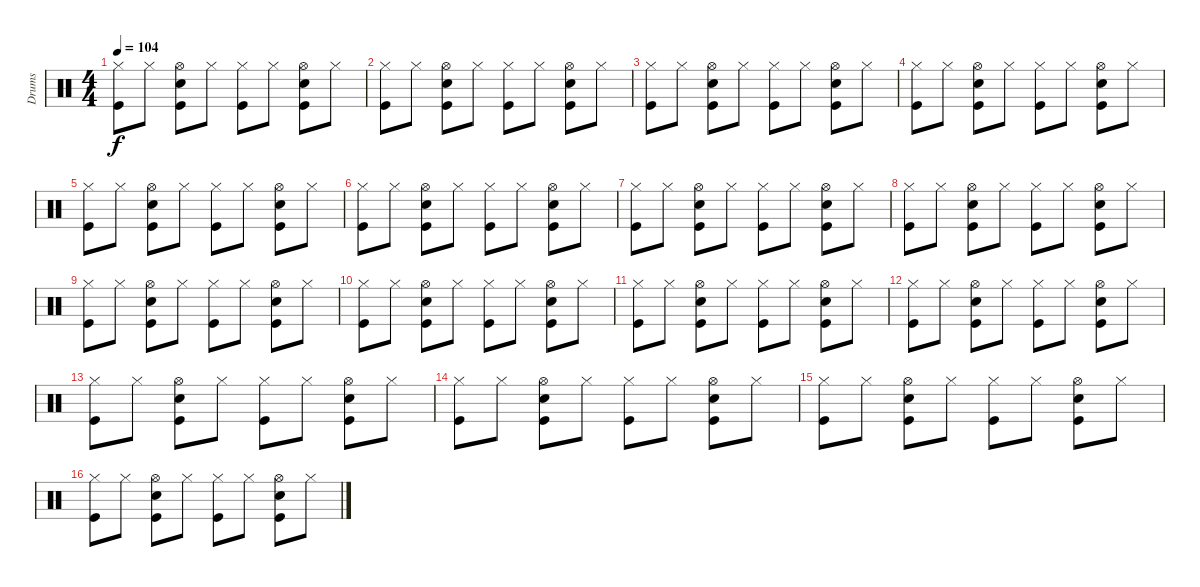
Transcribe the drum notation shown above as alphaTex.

\track ("Drums" "Drums") {instrument percussion}
\staff {score}
\articulation defaults
\ts (4 4)
\tempo 104
\clef neutral
\ks c
("Hi-Hat (closed)" "Kick (hit)").8{dy f} "Hi-Hat (closed)".8 ("Snare (hit) 2" "Hi-Hat (open)" "Kick (hit)").8 "Hi-Hat (closed)".8 ("Hi-Hat (closed)" "Kick (hit)").8 "Hi-Hat (closed)".8 ("Snare (hit) 2" "Hi-Hat (open)" "Kick (hit)").8 "Hi-Hat (closed)".8 |
("Hi-Hat (closed)" "Kick (hit)").8 "Hi-Hat (closed)".8 ("Snare (hit) 2" "Hi-Hat (open)" "Kick (hit)").8 "Hi-Hat (closed)".8 ("Hi-Hat (closed)" "Kick (hit)").8 "Hi-Hat (closed)".8 ("Snare (hit) 2" "Hi-Hat (open)" "Kick (hit)").8 "Hi-Hat (closed)".8 |
("Hi-Hat (closed)" "Kick (hit)").8 "Hi-Hat (closed)".8 ("Snare (hit) 2" "Hi-Hat (open)" "Kick (hit)").8 "Hi-Hat (closed)".8 ("Hi-Hat (closed)" "Kick (hit)").8 "Hi-Hat (closed)".8 ("Snare (hit) 2" "Hi-Hat (open)" "Kick (hit)").8 "Hi-Hat (closed)".8 |
("Hi-Hat (closed)" "Kick (hit)").8 "Hi-Hat (closed)".8 ("Snare (hit) 2" "Hi-Hat (open)" "Kick (hit)").8 "Hi-Hat (closed)".8 ("Hi-Hat (closed)" "Kick (hit)").8 "Hi-Hat (closed)".8 ("Snare (hit) 2" "Hi-Hat (open)" "Kick (hit)").8 "Hi-Hat (closed)".8 |
("Hi-Hat (closed)" "Kick (hit)").8 "Hi-Hat (closed)".8 ("Snare (hit) 2" "Hi-Hat (open)" "Kick (hit)").8 "Hi-Hat (closed)".8 ("Hi-Hat (closed)" "Kick (hit)").8 "Hi-Hat (closed)".8 ("Snare (hit) 2" "Hi-Hat (open)" "Kick (hit)").8 "Hi-Hat (closed)".8 |
("Hi-Hat (closed)" "Kick (hit)").8 "Hi-Hat (closed)".8 ("Snare (hit) 2" "Hi-Hat (open)" "Kick (hit)").8 "Hi-Hat (closed)".8 ("Hi-Hat (closed)" "Kick (hit)").8 "Hi-Hat (closed)".8 ("Snare (hit) 2" "Hi-Hat (open)" "Kick (hit)").8 "Hi-Hat (closed)".8 |
("Hi-Hat (closed)" "Kick (hit)").8 "Hi-Hat (closed)".8 ("Snare (hit) 2" "Hi-Hat (open)" "Kick (hit)").8 "Hi-Hat (closed)".8 ("Hi-Hat (closed)" "Kick (hit)").8 "Hi-Hat (closed)".8 ("Snare (hit) 2" "Hi-Hat (open)" "Kick (hit)").8 "Hi-Hat (closed)".8 |
("Hi-Hat (closed)" "Kick (hit)").8 "Hi-Hat (closed)".8 ("Snare (hit) 2" "Hi-Hat (open)" "Kick (hit)").8 "Hi-Hat (closed)".8 ("Hi-Hat (closed)" "Kick (hit)").8 "Hi-Hat (closed)".8 ("Snare (hit) 2" "Hi-Hat (open)" "Kick (hit)").8 "Hi-Hat (closed)".8 |
("Hi-Hat (closed)" "Kick (hit)").8 "Hi-Hat (closed)".8 ("Snare (hit) 2" "Hi-Hat (open)" "Kick (hit)").8 "Hi-Hat (closed)".8 ("Hi-Hat (closed)" "Kick (hit)").8 "Hi-Hat (closed)".8 ("Snare (hit) 2" "Hi-Hat (open)" "Kick (hit)").8 "Hi-Hat (closed)".8 |
("Hi-Hat (closed)" "Kick (hit)").8 "Hi-Hat (closed)".8 ("Snare (hit) 2" "Hi-Hat (open)" "Kick (hit)").8 "Hi-Hat (closed)".8 ("Hi-Hat (closed)" "Kick (hit)").8 "Hi-Hat (closed)".8 ("Snare (hit) 2" "Hi-Hat (open)" "Kick (hit)").8 "Hi-Hat (closed)".8 |
("Hi-Hat (closed)" "Kick (hit)").8 "Hi-Hat (closed)".8 ("Snare (hit) 2" "Hi-Hat (open)" "Kick (hit)").8 "Hi-Hat (closed)".8 ("Hi-Hat (closed)" "Kick (hit)").8 "Hi-Hat (closed)".8 ("Snare (hit) 2" "Hi-Hat (open)" "Kick (hit)").8 "Hi-Hat (closed)".8 |
("Hi-Hat (closed)" "Kick (hit)").8 "Hi-Hat (closed)".8 ("Snare (hit) 2" "Hi-Hat (open)" "Kick (hit)").8 "Hi-Hat (closed)".8 ("Hi-Hat (closed)" "Kick (hit)").8 "Hi-Hat (closed)".8 ("Snare (hit) 2" "Hi-Hat (open)" "Kick (hit)").8 "Hi-Hat (closed)".8 |
("Hi-Hat (closed)" "Kick (hit)").8 "Hi-Hat (closed)".8 ("Snare (hit) 2" "Hi-Hat (open)" "Kick (hit)").8 "Hi-Hat (closed)".8 ("Hi-Hat (closed)" "Kick (hit)").8 "Hi-Hat (closed)".8 ("Snare (hit) 2" "Hi-Hat (open)" "Kick (hit)").8 "Hi-Hat (closed)".8 |
("Hi-Hat (closed)" "Kick (hit)").8 "Hi-Hat (closed)".8 ("Snare (hit) 2" "Hi-Hat (open)" "Kick (hit)").8 "Hi-Hat (closed)".8 ("Hi-Hat (closed)" "Kick (hit)").8 "Hi-Hat (closed)".8 ("Snare (hit) 2" "Hi-Hat (open)" "Kick (hit)").8 "Hi-Hat (closed)".8 |
("Hi-Hat (closed)" "Kick (hit)").8 "Hi-Hat (closed)".8 ("Snare (hit) 2" "Hi-Hat (open)" "Kick (hit)").8 "Hi-Hat (closed)".8 ("Hi-Hat (closed)" "Kick (hit)").8 "Hi-Hat (closed)".8 ("Snare (hit) 2" "Hi-Hat (open)" "Kick (hit)").8 "Hi-Hat (closed)".8 |
("Hi-Hat (closed)" "Kick (hit)").8 "Hi-Hat (closed)".8 ("Snare (hit) 2" "Hi-Hat (open)" "Kick (hit)").8 "Hi-Hat (closed)".8 ("Hi-Hat (closed)" "Kick (hit)").8 "Hi-Hat (closed)".8 ("Snare (hit) 2" "Hi-Hat (open)" "Kick (hit)").8 "Hi-Hat (closed)".8
